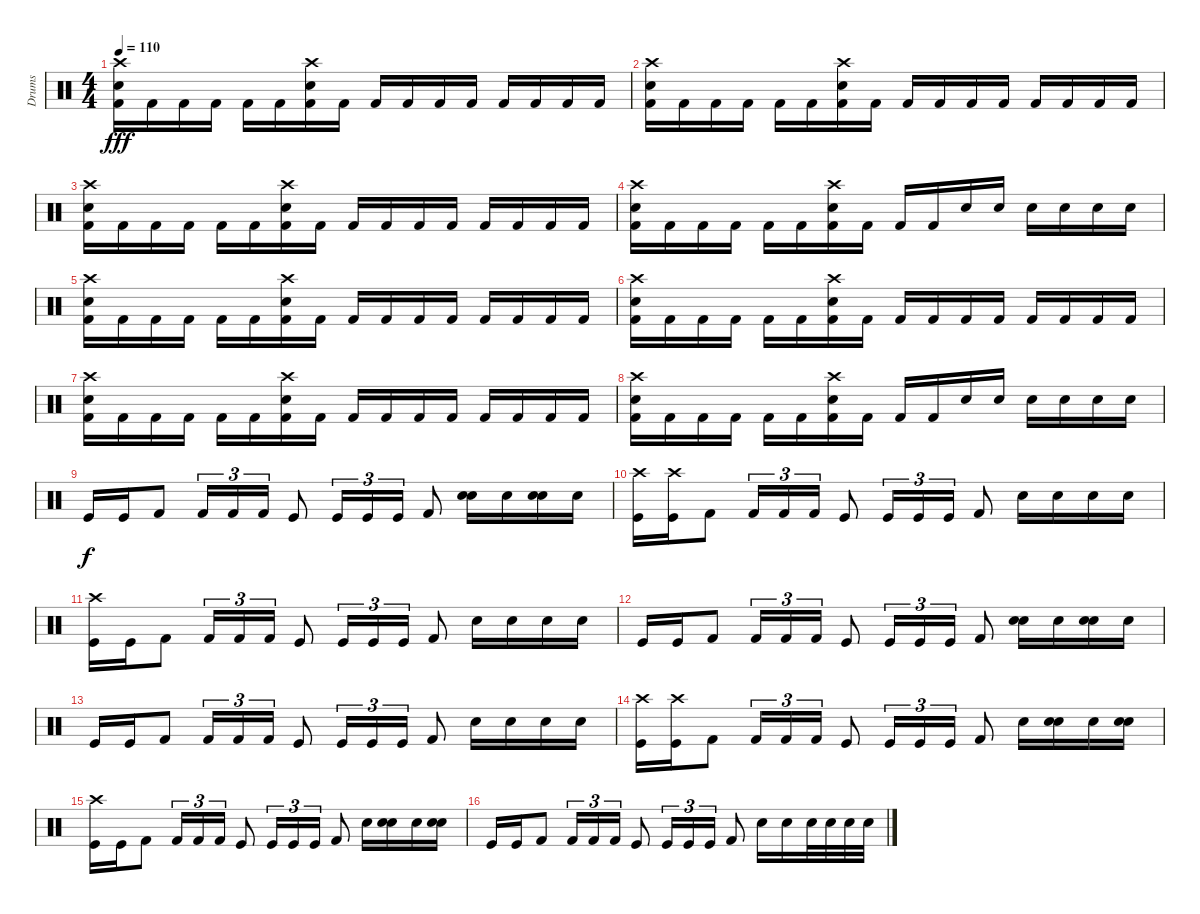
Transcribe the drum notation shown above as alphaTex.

\track ("Drums" "Drums") {instrument percussion}
\staff {score}
\articulation defaults
\ts (4 4)
\tempo 110
\clef neutral
\ks c
("Crash high (hit)" "Snare (hit) 2" "Kick (hit) 2").16{dy fff} "Kick (hit) 2".16 "Kick (hit) 2".16 "Kick (hit) 2".16 "Kick (hit) 2".16 "Kick (hit) 2".16 ("Crash high (hit)" "Snare (hit) 2" "Kick (hit) 2").16 "Kick (hit) 2".16 "Kick (hit) 2".16 "Kick (hit) 2".16 "Kick (hit) 2".16 "Kick (hit) 2".16 "Kick (hit) 2".16 "Kick (hit) 2".16 "Kick (hit) 2".16 "Kick (hit) 2".16 |
("Crash high (hit)" "Snare (hit) 2" "Kick (hit) 2").16 "Kick (hit) 2".16 "Kick (hit) 2".16 "Kick (hit) 2".16 "Kick (hit) 2".16 "Kick (hit) 2".16 ("Crash high (hit)" "Snare (hit) 2" "Kick (hit) 2").16 "Kick (hit) 2".16 "Kick (hit) 2".16 "Kick (hit) 2".16 "Kick (hit) 2".16 "Kick (hit) 2".16 "Kick (hit) 2".16 "Kick (hit) 2".16 "Kick (hit) 2".16 "Kick (hit) 2".16 |
("Crash high (hit)" "Snare (hit) 2" "Kick (hit) 2").16 "Kick (hit) 2".16 "Kick (hit) 2".16 "Kick (hit) 2".16 "Kick (hit) 2".16 "Kick (hit) 2".16 ("Crash high (hit)" "Snare (hit) 2" "Kick (hit) 2").16 "Kick (hit) 2".16 "Kick (hit) 2".16 "Kick (hit) 2".16 "Kick (hit) 2".16 "Kick (hit) 2".16 "Kick (hit) 2".16 "Kick (hit) 2".16 "Kick (hit) 2".16 "Kick (hit) 2".16 |
("Crash high (hit)" "Snare (hit) 2" "Kick (hit) 2").16 "Kick (hit) 2".16 "Kick (hit) 2".16 "Kick (hit) 2".16 "Kick (hit) 2".16 "Kick (hit) 2".16 ("Crash high (hit)" "Snare (hit) 2" "Kick (hit) 2").16 "Kick (hit) 2".16 "Kick (hit) 2".16 "Kick (hit) 2".16 "Snare (hit) 2".16 "Snare (hit) 2".16 "Snare (hit) 2".16 "Snare (hit) 2".16 "Snare (hit) 2".16 "Snare (hit) 2".16 |
("Crash high (hit)" "Snare (hit) 2" "Kick (hit) 2").16 "Kick (hit) 2".16 "Kick (hit) 2".16 "Kick (hit) 2".16 "Kick (hit) 2".16 "Kick (hit) 2".16 ("Crash high (hit)" "Snare (hit) 2" "Kick (hit) 2").16 "Kick (hit) 2".16 "Kick (hit) 2".16 "Kick (hit) 2".16 "Kick (hit) 2".16 "Kick (hit) 2".16 "Kick (hit) 2".16 "Kick (hit) 2".16 "Kick (hit) 2".16 "Kick (hit) 2".16 |
("Crash high (hit)" "Snare (hit) 2" "Kick (hit) 2").16 "Kick (hit) 2".16 "Kick (hit) 2".16 "Kick (hit) 2".16 "Kick (hit) 2".16 "Kick (hit) 2".16 ("Crash high (hit)" "Snare (hit) 2" "Kick (hit) 2").16 "Kick (hit) 2".16 "Kick (hit) 2".16 "Kick (hit) 2".16 "Kick (hit) 2".16 "Kick (hit) 2".16 "Kick (hit) 2".16 "Kick (hit) 2".16 "Kick (hit) 2".16 "Kick (hit) 2".16 |
("Crash high (hit)" "Snare (hit) 2" "Kick (hit) 2").16 "Kick (hit) 2".16 "Kick (hit) 2".16 "Kick (hit) 2".16 "Kick (hit) 2".16 "Kick (hit) 2".16 ("Crash high (hit)" "Snare (hit) 2" "Kick (hit) 2").16 "Kick (hit) 2".16 "Kick (hit) 2".16 "Kick (hit) 2".16 "Kick (hit) 2".16 "Kick (hit) 2".16 "Kick (hit) 2".16 "Kick (hit) 2".16 "Kick (hit) 2".16 "Kick (hit) 2".16 |
("Crash high (hit)" "Snare (hit) 2" "Kick (hit) 2").16 "Kick (hit) 2".16 "Kick (hit) 2".16 "Kick (hit) 2".16 "Kick (hit) 2".16 "Kick (hit) 2".16 ("Crash high (hit)" "Snare (hit) 2" "Kick (hit) 2").16 "Kick (hit) 2".16 "Kick (hit) 2".16 "Kick (hit) 2".16 "Snare (hit) 2".16 "Snare (hit) 2".16 "Snare (hit) 2".16 "Snare (hit) 2".16 "Snare (hit) 2".16 "Snare (hit) 2".16 |
"Kick (hit)".16{dy f} "Kick (hit)".16 "Kick (hit) 2".8 "Kick (hit) 2".16{tu (3 2)} "Kick (hit) 2".16{tu (3 2)} "Kick (hit) 2".16{tu (3 2)} "Kick (hit)".8 "Kick (hit)".16{tu (3 2)} "Kick (hit)".16{tu (3 2)} "Kick (hit)".16{tu (3 2)} "Kick (hit) 2".8 ("Snare (hit) 2" "Electric Snare (hit)").16 "Electric Snare (hit)".16 ("Snare (hit) 2" "Electric Snare (hit)").16 "Electric Snare (hit)".16 |
("Crash high (hit)" "Kick (hit)").16 ("Crash high (hit)" "Kick (hit)").16 "Kick (hit) 2".8 "Kick (hit) 2".16{tu (3 2)} "Kick (hit) 2".16{tu (3 2)} "Kick (hit) 2".16{tu (3 2)} "Kick (hit)".8 "Kick (hit)".16{tu (3 2)} "Kick (hit)".16{tu (3 2)} "Kick (hit)".16{tu (3 2)} "Kick (hit) 2".8 "Snare (hit) 2".16 "Snare (hit) 2".16 "Snare (hit) 2".16 "Snare (hit) 2".16 |
("Crash high (hit)" "Kick (hit)").16 "Kick (hit)".16 "Kick (hit) 2".8 "Kick (hit) 2".16{tu (3 2)} "Kick (hit) 2".16{tu (3 2)} "Kick (hit) 2".16{tu (3 2)} "Kick (hit)".8 "Kick (hit)".16{tu (3 2)} "Kick (hit)".16{tu (3 2)} "Kick (hit)".16{tu (3 2)} "Kick (hit) 2".8 "Snare (hit) 2".16 "Snare (hit) 2".16 "Snare (hit) 2".16 "Snare (hit) 2".16 |
"Kick (hit)".16 "Kick (hit)".16 "Kick (hit) 2".8 "Kick (hit) 2".16{tu (3 2)} "Kick (hit) 2".16{tu (3 2)} "Kick (hit) 2".16{tu (3 2)} "Kick (hit)".8 "Kick (hit)".16{tu (3 2)} "Kick (hit)".16{tu (3 2)} "Kick (hit)".16{tu (3 2)} "Kick (hit) 2".8 ("Electric Snare (hit)" "Snare (hit) 2").16 "Snare (hit) 2".16 ("Electric Snare (hit)" "Snare (hit) 2").16 "Snare (hit) 2".16 |
"Kick (hit)".16 "Kick (hit)".16 "Kick (hit) 2".8 "Kick (hit) 2".16{tu (3 2)} "Kick (hit) 2".16{tu (3 2)} "Kick (hit) 2".16{tu (3 2)} "Kick (hit)".8 "Kick (hit)".16{tu (3 2)} "Kick (hit)".16{tu (3 2)} "Kick (hit)".16{tu (3 2)} "Kick (hit) 2".8 "Snare (hit) 2".16 "Snare (hit) 2".16 "Snare (hit) 2".16 "Snare (hit) 2".16 |
("Crash high (hit)" "Kick (hit)").16 ("Crash high (hit)" "Kick (hit)").16 "Kick (hit) 2".8 "Kick (hit) 2".16{tu (3 2)} "Kick (hit) 2".16{tu (3 2)} "Kick (hit) 2".16{tu (3 2)} "Kick (hit)".8 "Kick (hit)".16{tu (3 2)} "Kick (hit)".16{tu (3 2)} "Kick (hit)".16{tu (3 2)} "Kick (hit) 2".8 "Snare (hit) 2".16 ("Electric Snare (hit)" "Snare (hit) 2").16 "Snare (hit) 2".16 ("Electric Snare (hit)" "Snare (hit) 2").16 |
("Crash high (hit)" "Kick (hit)").16 "Kick (hit)".16 "Kick (hit) 2".8 "Kick (hit) 2".16{tu (3 2)} "Kick (hit) 2".16{tu (3 2)} "Kick (hit) 2".16{tu (3 2)} "Kick (hit)".8 "Kick (hit)".16{tu (3 2)} "Kick (hit)".16{tu (3 2)} "Kick (hit)".16{tu (3 2)} "Kick (hit) 2".8 "Snare (hit) 2".16 ("Electric Snare (hit)" "Snare (hit) 2").16 "Snare (hit) 2".16 ("Electric Snare (hit)" "Snare (hit) 2").16 |
"Kick (hit)".16 "Kick (hit)".16 "Kick (hit) 2".8 "Kick (hit) 2".16{tu (3 2)} "Kick (hit) 2".16{tu (3 2)} "Kick (hit) 2".16{tu (3 2)} "Kick (hit)".8 "Kick (hit)".16{tu (3 2)} "Kick (hit)".16{tu (3 2)} "Kick (hit)".16{tu (3 2)} "Kick (hit) 2".8 "Snare (hit) 2".16 "Snare (hit) 2".16 "Snare (hit) 2".32 "Snare (hit) 2".32 "Snare (hit) 2".32 "Snare (hit) 2".32
